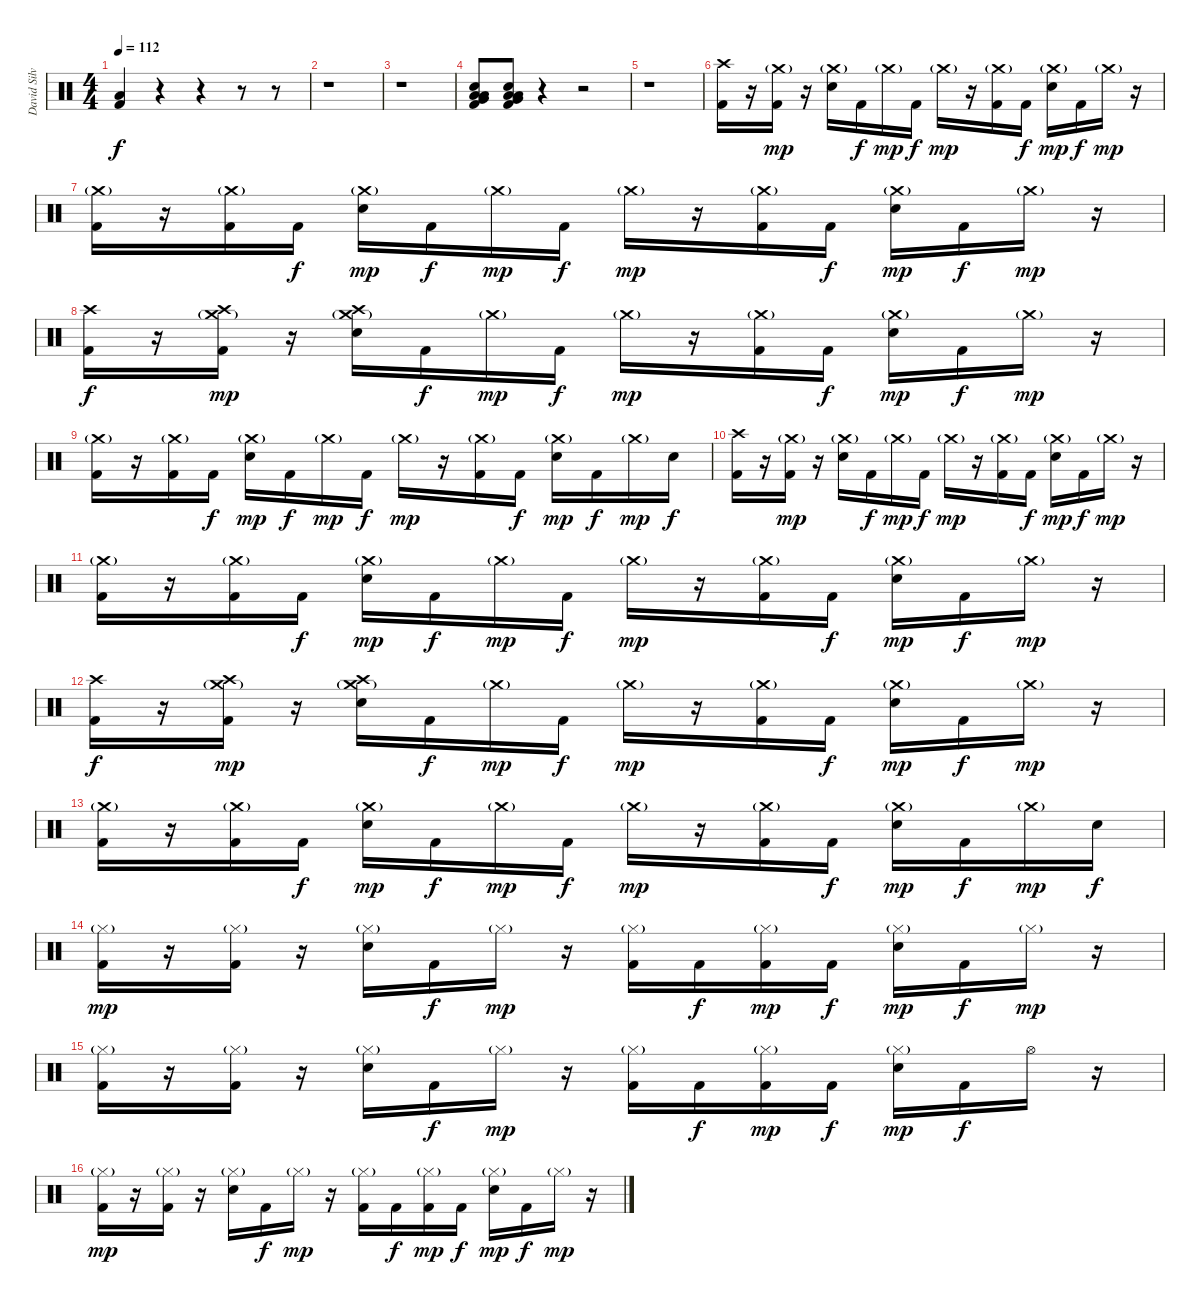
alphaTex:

\track ("David Silveria" "David Silv") {instrument percussion}
\staff {score}
\articulation defaults
\ts (4 4)
\tempo 112
\clef neutral
\ks c
("Low Tom (hit)" "Kick (hit) 2").4{dy f} r.4 r.4 r.8 r.8 |
r.1 |
r.1 |
("Electric Snare (hit)" "Very Low Tom (hit)" "Low Floor Tom (hit)" "Low Floor Tom (hit)" "Kick (hit) 2").8 ("Electric Snare (hit)" "Very Low Tom (hit)" "Low Floor Tom (hit)" "Low Floor Tom (hit)" "Kick (hit) 2").8 r.4 r.2 |
r.1 |
("Crash high (hit)" "Kick (hit) 2").16 r.16 ("Crash medium (hit)"{g} "Kick (hit) 2").16{dy mp} r.16 ("Crash medium (hit)"{g} "Electric Snare (hit)").16 "Kick (hit) 2".16{dy f} "Crash medium (hit)"{g}.16{dy mp} "Kick (hit) 2".16{dy f} "Crash medium (hit)"{g}.16{dy mp} r.16 ("Crash medium (hit)"{g} "Kick (hit) 2").16 "Kick (hit) 2".16{dy f} ("Crash medium (hit)"{g} "Electric Snare (hit)").16{dy mp} "Kick (hit) 2".16{dy f} "Crash medium (hit)"{g}.16{dy mp} r.16 |
("Crash medium (hit)"{g} "Kick (hit) 2").16 r.16 ("Crash medium (hit)"{g} "Kick (hit) 2").16 "Kick (hit) 2".16{dy f} ("Crash medium (hit)"{g} "Electric Snare (hit)").16{dy mp} "Kick (hit) 2".16{dy f} "Crash medium (hit)"{g}.16{dy mp} "Kick (hit) 2".16{dy f} "Crash medium (hit)"{g}.16{dy mp} r.16 ("Crash medium (hit)"{g} "Kick (hit) 2").16 "Kick (hit) 2".16{dy f} ("Crash medium (hit)"{g} "Electric Snare (hit)").16{dy mp} "Kick (hit) 2".16{dy f} "Crash medium (hit)"{g}.16{dy mp} r.16 |
("Crash high (hit)" "Kick (hit) 2").16{dy f} r.16 ("Crash high (hit)" "Crash medium (hit)"{g} "Kick (hit) 2").16{dy mp} r.16 ("Crash high (hit)" "Crash medium (hit)"{g} "Electric Snare (hit)").16 "Kick (hit) 2".16{dy f} "Crash medium (hit)"{g}.16{dy mp} "Kick (hit) 2".16{dy f} "Crash medium (hit)"{g}.16{dy mp} r.16 ("Crash medium (hit)"{g} "Kick (hit) 2").16 "Kick (hit) 2".16{dy f} ("Crash medium (hit)"{g} "Electric Snare (hit)").16{dy mp} "Kick (hit) 2".16{dy f} "Crash medium (hit)"{g}.16{dy mp} r.16 |
("Crash medium (hit)"{g} "Kick (hit) 2").16 r.16 ("Crash medium (hit)"{g} "Kick (hit) 2").16 "Kick (hit) 2".16{dy f} ("Crash medium (hit)"{g} "Electric Snare (hit)").16{dy mp} "Kick (hit) 2".16{dy f} "Crash medium (hit)"{g}.16{dy mp} "Kick (hit) 2".16{dy f} "Crash medium (hit)"{g}.16{dy mp} r.16 ("Crash medium (hit)"{g} "Kick (hit) 2").16 "Kick (hit) 2".16{dy f} ("Crash medium (hit)"{g} "Electric Snare (hit)").16{dy mp} "Kick (hit) 2".16{dy f} "Crash medium (hit)"{g}.16{dy mp} "Electric Snare (hit)".16{dy f} |
("Crash high (hit)" "Kick (hit) 2").16 r.16 ("Crash medium (hit)"{g} "Kick (hit) 2").16{dy mp} r.16 ("Crash medium (hit)"{g} "Electric Snare (hit)").16 "Kick (hit) 2".16{dy f} "Crash medium (hit)"{g}.16{dy mp} "Kick (hit) 2".16{dy f} "Crash medium (hit)"{g}.16{dy mp} r.16 ("Crash medium (hit)"{g} "Kick (hit) 2").16 "Kick (hit) 2".16{dy f} ("Crash medium (hit)"{g} "Electric Snare (hit)").16{dy mp} "Kick (hit) 2".16{dy f} "Crash medium (hit)"{g}.16{dy mp} r.16 |
("Crash medium (hit)"{g} "Kick (hit) 2").16 r.16 ("Crash medium (hit)"{g} "Kick (hit) 2").16 "Kick (hit) 2".16{dy f} ("Crash medium (hit)"{g} "Electric Snare (hit)").16{dy mp} "Kick (hit) 2".16{dy f} "Crash medium (hit)"{g}.16{dy mp} "Kick (hit) 2".16{dy f} "Crash medium (hit)"{g}.16{dy mp} r.16 ("Crash medium (hit)"{g} "Kick (hit) 2").16 "Kick (hit) 2".16{dy f} ("Crash medium (hit)"{g} "Electric Snare (hit)").16{dy mp} "Kick (hit) 2".16{dy f} "Crash medium (hit)"{g}.16{dy mp} r.16 |
("Crash high (hit)" "Kick (hit) 2").16{dy f} r.16 ("Crash high (hit)" "Crash medium (hit)"{g} "Kick (hit) 2").16{dy mp} r.16 ("Crash high (hit)" "Crash medium (hit)"{g} "Electric Snare (hit)").16 "Kick (hit) 2".16{dy f} "Crash medium (hit)"{g}.16{dy mp} "Kick (hit) 2".16{dy f} "Crash medium (hit)"{g}.16{dy mp} r.16 ("Crash medium (hit)"{g} "Kick (hit) 2").16 "Kick (hit) 2".16{dy f} ("Crash medium (hit)"{g} "Electric Snare (hit)").16{dy mp} "Kick (hit) 2".16{dy f} "Crash medium (hit)"{g}.16{dy mp} r.16 |
("Crash medium (hit)"{g} "Kick (hit) 2").16 r.16 ("Crash medium (hit)"{g} "Kick (hit) 2").16 "Kick (hit) 2".16{dy f} ("Crash medium (hit)"{g} "Electric Snare (hit)").16{dy mp} "Kick (hit) 2".16{dy f} "Crash medium (hit)"{g}.16{dy mp} "Kick (hit) 2".16{dy f} "Crash medium (hit)"{g}.16{dy mp} r.16 ("Crash medium (hit)"{g} "Kick (hit) 2").16 "Kick (hit) 2".16{dy f} ("Crash medium (hit)"{g} "Electric Snare (hit)").16{dy mp} "Kick (hit) 2".16{dy f} "Crash medium (hit)"{g}.16{dy mp} "Electric Snare (hit)".16{dy f} |
("Hi-Hat (closed)"{g} "Kick (hit) 2").16{dy mp} r.16 ("Hi-Hat (closed)"{g} "Kick (hit) 2").16 r.16 ("Hi-Hat (closed)"{g} "Electric Snare (hit)").16 "Kick (hit) 2".16{dy f} "Hi-Hat (closed)"{g}.16{dy mp} r.16 ("Hi-Hat (closed)"{g} "Kick (hit) 2").16 "Kick (hit) 2".16{dy f} ("Hi-Hat (closed)"{g} "Kick (hit) 2").16{dy mp} "Kick (hit) 2".16{dy f} ("Hi-Hat (closed)"{g} "Electric Snare (hit)").16{dy mp} "Kick (hit) 2".16{dy f} "Hi-Hat (closed)"{g}.16{dy mp} r.16 |
("Hi-Hat (closed)"{g} "Kick (hit) 2").16 r.16 ("Hi-Hat (closed)"{g} "Kick (hit) 2").16 r.16 ("Hi-Hat (closed)"{g} "Electric Snare (hit)").16 "Kick (hit) 2".16{dy f} "Hi-Hat (closed)"{g}.16{dy mp} r.16 ("Hi-Hat (closed)"{g} "Kick (hit) 2").16 "Kick (hit) 2".16{dy f} ("Hi-Hat (closed)"{g} "Kick (hit) 2").16{dy mp} "Kick (hit) 2".16{dy f} ("Hi-Hat (closed)"{g} "Electric Snare (hit)").16{dy mp} "Kick (hit) 2".16{dy f} "Hi-Hat (open)".16 r.16 |
("Hi-Hat (closed)"{g} "Kick (hit) 2").16{dy mp} r.16 ("Hi-Hat (closed)"{g} "Kick (hit) 2").16 r.16 ("Hi-Hat (closed)"{g} "Electric Snare (hit)").16 "Kick (hit) 2".16{dy f} "Hi-Hat (closed)"{g}.16{dy mp} r.16 ("Hi-Hat (closed)"{g} "Kick (hit) 2").16 "Kick (hit) 2".16{dy f} ("Hi-Hat (closed)"{g} "Kick (hit) 2").16{dy mp} "Kick (hit) 2".16{dy f} ("Hi-Hat (closed)"{g} "Electric Snare (hit)").16{dy mp} "Kick (hit) 2".16{dy f} "Hi-Hat (closed)"{g}.16{dy mp} r.16
